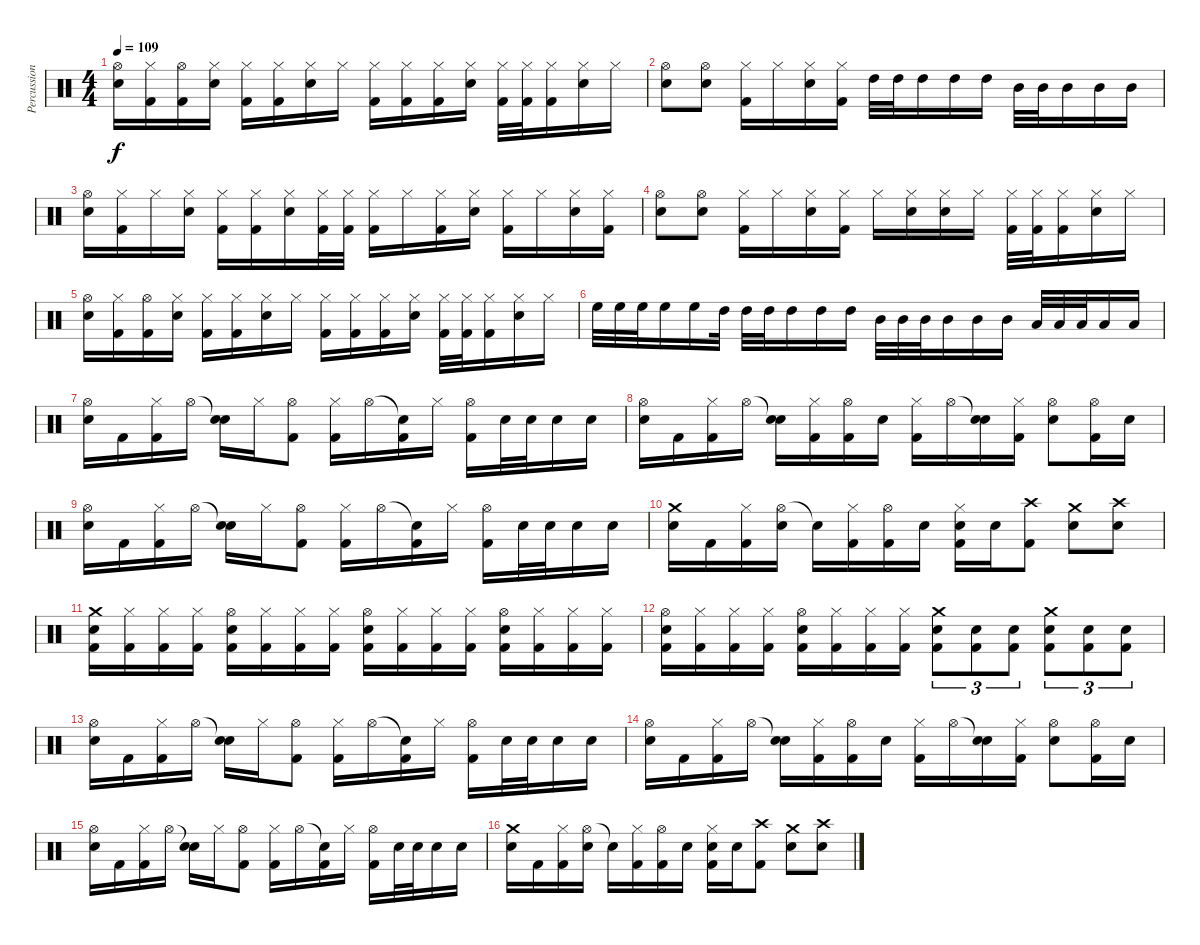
\track ("Percussions" "Percussion") {instrument percussion}
\staff {score}
\articulation defaults
\ts (4 4)
\tempo 109
\clef neutral
\ks c
("Hi-Hat (open)" "Electric Snare (hit)").16{dy f} ("Hi-Hat (closed)" "Kick (hit) 2").16 ("Hi-Hat (open)" "Kick (hit) 2").16 ("Hi-Hat (closed)" "Electric Snare (hit)").16 ("Hi-Hat (closed)" "Kick (hit) 2").16 ("Hi-Hat (closed)" "Kick (hit) 2").16 ("Hi-Hat (closed)" "Electric Snare (hit)").16 "Hi-Hat (closed)".16 ("Hi-Hat (closed)" "Kick (hit) 2").16 ("Hi-Hat (closed)" "Kick (hit) 2").16 ("Hi-Hat (closed)" "Kick (hit) 2").16 ("Hi-Hat (closed)" "Electric Snare (hit)").16 ("Hi-Hat (closed)" "Kick (hit) 2").32 ("Hi-Hat (closed)" "Kick (hit) 2").32 ("Hi-Hat (closed)" "Kick (hit) 2").16 ("Hi-Hat (closed)" "Electric Snare (hit)").16 "Hi-Hat (closed)".16 |
("Hi-Hat (open)" "Electric Snare (hit)").8 ("Hi-Hat (open)" "Electric Snare (hit)").8 ("Hi-Hat (closed)" "Kick (hit) 2").16 "Hi-Hat (closed)".16 ("Hi-Hat (closed)" "Electric Snare (hit)").16 ("Hi-Hat (closed)" "Kick (hit) 2").16 "High Tom (hit)".32 "High Tom (hit)".32 "High Tom (hit)".16 "High Tom (hit)".16 "High Tom (hit)".16 "Mid Tom (hit)".32 "Mid Tom (hit)".32 "Mid Tom (hit)".16 "Mid Tom (hit)".16 "Mid Tom (hit)".16 |
("Hi-Hat (open)" "Electric Snare (hit)").16 ("Hi-Hat (closed)" "Kick (hit) 2").16 "Hi-Hat (closed)".16 ("Hi-Hat (closed)" "Electric Snare (hit)").16 ("Hi-Hat (closed)" "Kick (hit) 2").16 ("Hi-Hat (closed)" "Kick (hit) 2").16 ("Hi-Hat (closed)" "Electric Snare (hit)").16 ("Hi-Hat (closed)" "Kick (hit) 2").32 ("Hi-Hat (closed)" "Kick (hit) 2").32 ("Hi-Hat (closed)" "Kick (hit) 2").16 "Hi-Hat (closed)".16 ("Hi-Hat (closed)" "Kick (hit) 2").16 ("Hi-Hat (closed)" "Electric Snare (hit)").16 ("Hi-Hat (closed)" "Kick (hit) 2").16 "Hi-Hat (closed)".16 ("Hi-Hat (closed)" "Electric Snare (hit)").16 ("Hi-Hat (closed)" "Kick (hit) 2").16 |
("Hi-Hat (open)" "Electric Snare (hit)").8 ("Hi-Hat (open)" "Electric Snare (hit)").8 ("Hi-Hat (closed)" "Kick (hit) 2").16 "Hi-Hat (closed)".16 ("Hi-Hat (closed)" "Electric Snare (hit)").16 ("Hi-Hat (closed)" "Kick (hit) 2").16 "Hi-Hat (closed)".16 ("Hi-Hat (closed)" "Electric Snare (hit)").16 ("Hi-Hat (closed)" "Electric Snare (hit)").16 "Hi-Hat (closed)".16 ("Hi-Hat (closed)" "Kick (hit) 2").32 ("Hi-Hat (closed)" "Kick (hit) 2").32 ("Hi-Hat (closed)" "Kick (hit) 2").16 ("Hi-Hat (closed)" "Electric Snare (hit)").16 "Hi-Hat (closed)".16 |
("Hi-Hat (open)" "Electric Snare (hit)").16 ("Hi-Hat (closed)" "Kick (hit) 2").16 ("Hi-Hat (open)" "Kick (hit) 2").16 ("Hi-Hat (closed)" "Electric Snare (hit)").16 ("Hi-Hat (closed)" "Kick (hit) 2").16 ("Hi-Hat (closed)" "Kick (hit) 2").16 ("Hi-Hat (closed)" "Electric Snare (hit)").16 "Hi-Hat (closed)".16 ("Hi-Hat (closed)" "Kick (hit) 2").16 ("Hi-Hat (closed)" "Kick (hit) 2").16 ("Hi-Hat (closed)" "Kick (hit) 2").16 ("Hi-Hat (closed)" "Electric Snare (hit)").16 ("Hi-Hat (closed)" "Kick (hit) 2").32 ("Hi-Hat (closed)" "Kick (hit) 2").32 ("Hi-Hat (closed)" "Kick (hit) 2").16 ("Hi-Hat (closed)" "Electric Snare (hit)").16 "Hi-Hat (closed)".16 |
"High Floor Tom (hit)".32 "High Floor Tom (hit)".32 "High Floor Tom (hit)".32 "High Floor Tom (hit)".16 "High Floor Tom (hit)".16 "High Tom (hit)".32 "High Tom (hit)".32 "High Tom (hit)".32 "High Tom (hit)".16 "High Tom (hit)".16 "High Tom (hit)".16 "Mid Tom (hit)".32 "Mid Tom (hit)".32 "Mid Tom (hit)".32 "Mid Tom (hit)".16 "Mid Tom (hit)".16 "Mid Tom (hit)".16 "Low Tom (hit)".32 "Low Tom (hit)".32 "Low Tom (hit)".32 "Low Tom (hit)".16 "Low Tom (hit)".16 |
("Hi-Hat (open)" "Electric Snare (hit)").16 "Kick (hit) 2".16 ("Hi-Hat (closed)" "Kick (hit) 2").16 "Hi-Hat (open)".16 ("Snare (hit)"{t} "Electric Snare (hit)").16 "Hi-Hat (closed)".16 ("Hi-Hat (open)" "Kick (hit) 2").8 ("Hi-Hat (closed)" "Kick (hit) 2").16 "Hi-Hat (open)".16 ("Snare (hit)"{t} "Kick (hit) 2").16 "Hi-Hat (closed)".16 ("Hi-Hat (open)" "Kick (hit) 2").16 "Electric Snare (hit)".32 "Electric Snare (hit)".32 "Electric Snare (hit)".16 "Electric Snare (hit)".16 |
("Hi-Hat (open)" "Electric Snare (hit)").16 "Kick (hit) 2".16 ("Hi-Hat (closed)" "Kick (hit) 2").16 "Hi-Hat (open)".16 ("Snare (hit)"{t} "Electric Snare (hit)").16 ("Hi-Hat (closed)" "Kick (hit) 2").16 ("Hi-Hat (open)" "Kick (hit) 2").16 "Electric Snare (hit)".16 ("Hi-Hat (closed)" "Kick (hit) 2").16 "Hi-Hat (open)".16 ("Snare (hit)"{t} "Electric Snare (hit)").16 ("Hi-Hat (closed)" "Kick (hit) 2").16 ("Hi-Hat (open)" "Electric Snare (hit)").8 ("Hi-Hat (open)" "Kick (hit) 2").16 "Electric Snare (hit)".16 |
("Hi-Hat (open)" "Electric Snare (hit)").16 "Kick (hit) 2".16 ("Hi-Hat (closed)" "Kick (hit) 2").16 "Hi-Hat (open)".16 ("Snare (hit)"{t} "Electric Snare (hit)").16 "Hi-Hat (closed)".16 ("Hi-Hat (open)" "Kick (hit) 2").8 ("Hi-Hat (closed)" "Kick (hit) 2").16 "Hi-Hat (open)".16 ("Snare (hit)"{t} "Kick (hit) 2").16 "Hi-Hat (closed)".16 ("Hi-Hat (open)" "Kick (hit) 2").16 "Electric Snare (hit)".32 "Electric Snare (hit)".32 "Electric Snare (hit)".16 "Electric Snare (hit)".16 |
("Crash medium (hit)" "Electric Snare (hit)").16 "Kick (hit) 2".16 ("Hi-Hat (closed)" "Kick (hit) 2").16 ("Hi-Hat (open)" "Electric Snare (hit)").16 "Snare (hit)"{t}.16 ("Hi-Hat (closed)" "Kick (hit) 2").16 ("Hi-Hat (open)" "Kick (hit) 2").16 "Electric Snare (hit)".16 ("Hi-Hat (closed)" "Electric Snare (hit)" "Kick (hit) 2").16 "Electric Snare (hit)".16 ("Crash high (hit)" "Kick (hit) 2").8 ("Crash medium (hit)" "Electric Snare (hit)").8 ("Crash high (hit)" "Electric Snare (hit)").8 |
("Crash medium (hit)" "Electric Snare (hit)" "Kick (hit) 2").16 ("Hi-Hat (closed)" "Kick (hit) 2").16 ("Hi-Hat (closed)" "Kick (hit) 2").16 ("Hi-Hat (closed)" "Kick (hit) 2").16 ("Hi-Hat (open)" "Electric Snare (hit)" "Kick (hit) 2").16 ("Hi-Hat (closed)" "Kick (hit) 2").16 ("Hi-Hat (closed)" "Kick (hit) 2").16 ("Hi-Hat (closed)" "Kick (hit) 2").16 ("Hi-Hat (open)" "Electric Snare (hit)" "Kick (hit) 2").16 ("Hi-Hat (closed)" "Kick (hit) 2").16 ("Hi-Hat (closed)" "Kick (hit) 2").16 ("Hi-Hat (closed)" "Kick (hit) 2").16 ("Hi-Hat (open)" "Electric Snare (hit)" "Kick (hit) 2").16 ("Hi-Hat (closed)" "Kick (hit) 2").16 ("Hi-Hat (closed)" "Kick (hit) 2").16 ("Hi-Hat (closed)" "Kick (hit) 2").16 |
("Hi-Hat (open)" "Electric Snare (hit)" "Kick (hit) 2").16 ("Hi-Hat (closed)" "Kick (hit) 2").16 ("Hi-Hat (closed)" "Kick (hit) 2").16 ("Hi-Hat (closed)" "Kick (hit) 2").16 ("Hi-Hat (open)" "Electric Snare (hit)" "Kick (hit) 2").16 ("Hi-Hat (closed)" "Kick (hit) 2").16 ("Hi-Hat (closed)" "Kick (hit) 2").16 ("Hi-Hat (closed)" "Kick (hit) 2").16 ("Crash medium (hit)" "Electric Snare (hit)" "Kick (hit) 2").8{tu (3 2)} ("Electric Snare (hit)" "Kick (hit) 2").8{tu (3 2)} ("Electric Snare (hit)" "Kick (hit) 2").8{tu (3 2)} ("Crash medium (hit)" "Electric Snare (hit)" "Kick (hit) 2").8{tu (3 2)} ("Electric Snare (hit)" "Kick (hit) 2").8{tu (3 2)} ("Electric Snare (hit)" "Kick (hit) 2").8{tu (3 2)} |
("Hi-Hat (open)" "Electric Snare (hit)").16 "Kick (hit) 2".16 ("Hi-Hat (closed)" "Kick (hit) 2").16 "Hi-Hat (open)".16 ("Snare (hit)"{t} "Electric Snare (hit)").16 "Hi-Hat (closed)".16 ("Hi-Hat (open)" "Kick (hit) 2").8 ("Hi-Hat (closed)" "Kick (hit) 2").16 "Hi-Hat (open)".16 ("Snare (hit)"{t} "Kick (hit) 2").16 "Hi-Hat (closed)".16 ("Hi-Hat (open)" "Kick (hit) 2").16 "Electric Snare (hit)".32 "Electric Snare (hit)".32 "Electric Snare (hit)".16 "Electric Snare (hit)".16 |
("Hi-Hat (open)" "Electric Snare (hit)").16 "Kick (hit) 2".16 ("Hi-Hat (closed)" "Kick (hit) 2").16 "Hi-Hat (open)".16 ("Snare (hit)"{t} "Electric Snare (hit)").16 ("Hi-Hat (closed)" "Kick (hit) 2").16 ("Hi-Hat (open)" "Kick (hit) 2").16 "Electric Snare (hit)".16 ("Hi-Hat (closed)" "Kick (hit) 2").16 "Hi-Hat (open)".16 ("Snare (hit)"{t} "Electric Snare (hit)").16 ("Hi-Hat (closed)" "Kick (hit) 2").16 ("Hi-Hat (open)" "Electric Snare (hit)").8 ("Hi-Hat (open)" "Kick (hit) 2").16 "Electric Snare (hit)".16 |
("Hi-Hat (open)" "Electric Snare (hit)").16 "Kick (hit) 2".16 ("Hi-Hat (closed)" "Kick (hit) 2").16 "Hi-Hat (open)".16 ("Snare (hit)"{t} "Electric Snare (hit)").16 "Hi-Hat (closed)".16 ("Hi-Hat (open)" "Kick (hit) 2").8 ("Hi-Hat (closed)" "Kick (hit) 2").16 "Hi-Hat (open)".16 ("Snare (hit)"{t} "Kick (hit) 2").16 "Hi-Hat (closed)".16 ("Hi-Hat (open)" "Kick (hit) 2").16 "Electric Snare (hit)".32 "Electric Snare (hit)".32 "Electric Snare (hit)".16 "Electric Snare (hit)".16 |
("Crash medium (hit)" "Electric Snare (hit)").16 "Kick (hit) 2".16 ("Hi-Hat (closed)" "Kick (hit) 2").16 ("Hi-Hat (open)" "Electric Snare (hit)").16 "Snare (hit)"{t}.16 ("Hi-Hat (closed)" "Kick (hit) 2").16 ("Hi-Hat (open)" "Kick (hit) 2").16 "Electric Snare (hit)".16 ("Hi-Hat (closed)" "Electric Snare (hit)" "Kick (hit) 2").16 "Electric Snare (hit)".16 ("Crash high (hit)" "Kick (hit) 2").8 ("Crash medium (hit)" "Electric Snare (hit)").8 ("Crash high (hit)" "Electric Snare (hit)").8
